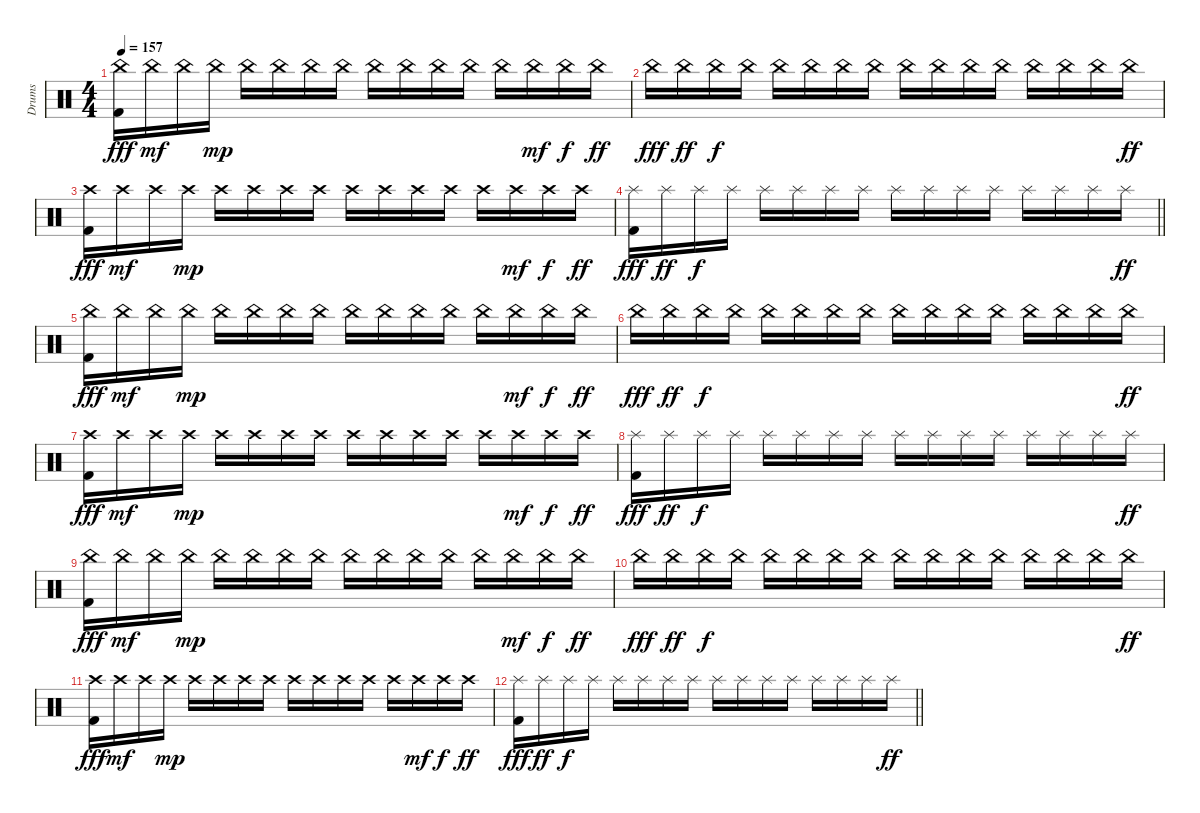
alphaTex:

\track ("Drums" "Drums") {instrument percussion}
\staff {score}
\articulation defaults
\ts (4 4)
\tempo 157
\clef neutral
\ks c
("Kick (hit) 2" "China (hit)").16{dy fff} "China (hit)".16{dy mf} "China (hit)".16 "China (hit)".16{dy mp} "China (hit)".16 "China (hit)".16 "China (hit)".16 "China (hit)".16 "China (hit)".16 "China (hit)".16 "China (hit)".16 "China (hit)".16 "China (hit)".16 "China (hit)".16{dy mf} "China (hit)".16{dy f} "China (hit)".16{dy ff} |
"China (hit)".16{dy fff} "China (hit)".16{dy ff} "China (hit)".16{dy f} "China (hit)".16 "China (hit)".16 "China (hit)".16 "China (hit)".16 "China (hit)".16 "China (hit)".16 "China (hit)".16 "China (hit)".16 "China (hit)".16 "China (hit)".16 "China (hit)".16 "China (hit)".16 "China (hit)".16{dy ff} |
("Kick (hit) 2" "Crash high (hit)").16{dy fff} "Crash high (hit)".16{dy mf} "Crash high (hit)".16 "Crash high (hit)".16{dy mp} "Crash high (hit)".16 "Crash high (hit)".16 "Crash high (hit)".16 "Crash high (hit)".16 "Crash high (hit)".16 "Crash high (hit)".16 "Crash high (hit)".16 "Crash high (hit)".16 "Crash high (hit)".16 "Crash high (hit)".16{dy mf} "Crash high (hit)".16{dy f} "Crash high (hit)".16{dy ff} |
\barLineRight lightlight
("Kick (hit) 2" "Splash (hit)").16{dy fff} "Splash (hit)".16{dy ff} "Splash (hit)".16{dy f} "Splash (hit)".16 "Splash (hit)".16 "Splash (hit)".16 "Splash (hit)".16 "Splash (hit)".16 "Splash (hit)".16 "Splash (hit)".16 "Splash (hit)".16 "Splash (hit)".16 "Splash (hit)".16 "Splash (hit)".16 "Splash (hit)".16 "Splash (hit)".16{dy ff} |
("Kick (hit) 2" "China (hit)").16{dy fff} "China (hit)".16{dy mf} "China (hit)".16 "China (hit)".16{dy mp} "China (hit)".16 "China (hit)".16 "China (hit)".16 "China (hit)".16 "China (hit)".16 "China (hit)".16 "China (hit)".16 "China (hit)".16 "China (hit)".16 "China (hit)".16{dy mf} "China (hit)".16{dy f} "China (hit)".16{dy ff} |
"China (hit)".16{dy fff} "China (hit)".16{dy ff} "China (hit)".16{dy f} "China (hit)".16 "China (hit)".16 "China (hit)".16 "China (hit)".16 "China (hit)".16 "China (hit)".16 "China (hit)".16 "China (hit)".16 "China (hit)".16 "China (hit)".16 "China (hit)".16 "China (hit)".16 "China (hit)".16{dy ff} |
("Kick (hit) 2" "Crash high (hit)").16{dy fff} "Crash high (hit)".16{dy mf} "Crash high (hit)".16 "Crash high (hit)".16{dy mp} "Crash high (hit)".16 "Crash high (hit)".16 "Crash high (hit)".16 "Crash high (hit)".16 "Crash high (hit)".16 "Crash high (hit)".16 "Crash high (hit)".16 "Crash high (hit)".16 "Crash high (hit)".16 "Crash high (hit)".16{dy mf} "Crash high (hit)".16{dy f} "Crash high (hit)".16{dy ff} |
("Kick (hit) 2" "Splash (hit)").16{dy fff} "Splash (hit)".16{dy ff} "Splash (hit)".16{dy f} "Splash (hit)".16 "Splash (hit)".16 "Splash (hit)".16 "Splash (hit)".16 "Splash (hit)".16 "Splash (hit)".16 "Splash (hit)".16 "Splash (hit)".16 "Splash (hit)".16 "Splash (hit)".16 "Splash (hit)".16 "Splash (hit)".16 "Splash (hit)".16{dy ff} |
("Kick (hit) 2" "China (hit)").16{dy fff} "China (hit)".16{dy mf} "China (hit)".16 "China (hit)".16{dy mp} "China (hit)".16 "China (hit)".16 "China (hit)".16 "China (hit)".16 "China (hit)".16 "China (hit)".16 "China (hit)".16 "China (hit)".16 "China (hit)".16 "China (hit)".16{dy mf} "China (hit)".16{dy f} "China (hit)".16{dy ff} |
"China (hit)".16{dy fff} "China (hit)".16{dy ff} "China (hit)".16{dy f} "China (hit)".16 "China (hit)".16 "China (hit)".16 "China (hit)".16 "China (hit)".16 "China (hit)".16 "China (hit)".16 "China (hit)".16 "China (hit)".16 "China (hit)".16 "China (hit)".16 "China (hit)".16 "China (hit)".16{dy ff} |
("Kick (hit) 2" "Crash high (hit)").16{dy fff} "Crash high (hit)".16{dy mf} "Crash high (hit)".16 "Crash high (hit)".16{dy mp} "Crash high (hit)".16 "Crash high (hit)".16 "Crash high (hit)".16 "Crash high (hit)".16 "Crash high (hit)".16 "Crash high (hit)".16 "Crash high (hit)".16 "Crash high (hit)".16 "Crash high (hit)".16 "Crash high (hit)".16{dy mf} "Crash high (hit)".16{dy f} "Crash high (hit)".16{dy ff} |
\barLineRight lightlight
("Kick (hit) 2" "Splash (hit)").16{dy fff} "Splash (hit)".16{dy ff} "Splash (hit)".16{dy f} "Splash (hit)".16 "Splash (hit)".16 "Splash (hit)".16 "Splash (hit)".16 "Splash (hit)".16 "Splash (hit)".16 "Splash (hit)".16 "Splash (hit)".16 "Splash (hit)".16 "Splash (hit)".16 "Splash (hit)".16 "Splash (hit)".16 "Splash (hit)".16{dy ff}
